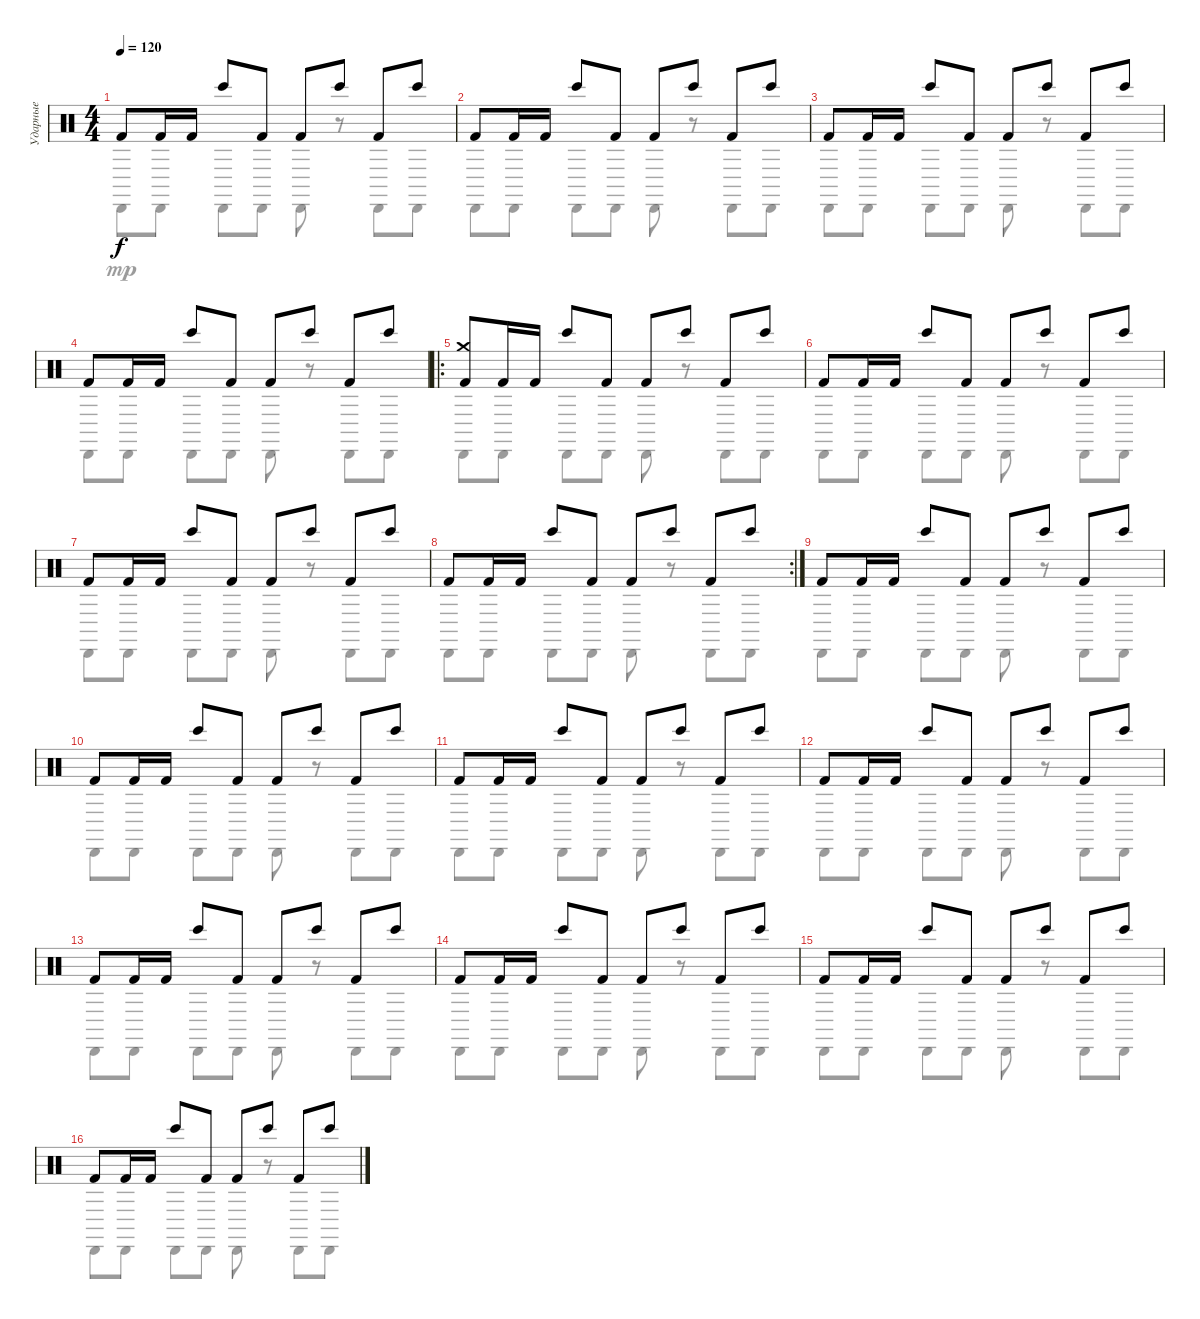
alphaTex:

\track ("Ударные" "Ударные") {instrument percussion}
\staff {score}
\articulation defaults
\voice
\ts (4 4)
\tempo 120
\clef neutral
\ks c "Kick (hit) 2".8{dy f} "Kick (hit) 2".16 "Kick (hit) 2".16 "Bongo High (hit)".8 "Kick (hit) 2".8 "Kick (hit) 2".8 "Bongo High (hit)".8 "Kick (hit) 2".8 "Bongo High (hit)".8
|
"Kick (hit) 2".8 "Kick (hit) 2".16 "Kick (hit) 2".16 "Bongo High (hit)".8 "Kick (hit) 2".8 "Kick (hit) 2".8 "Bongo High (hit)".8 "Kick (hit) 2".8 "Bongo High (hit)".8 |
"Kick (hit) 2".8 "Kick (hit) 2".16 "Kick (hit) 2".16 "Bongo High (hit)".8 "Kick (hit) 2".8 "Kick (hit) 2".8 "Bongo High (hit)".8 "Kick (hit) 2".8 "Bongo High (hit)".8 |
"Kick (hit) 2".8 "Kick (hit) 2".16 "Kick (hit) 2".16 "Bongo High (hit)".8 "Kick (hit) 2".8 "Kick (hit) 2".8 "Bongo High (hit)".8 "Kick (hit) 2".8 "Bongo High (hit)".8 |
\ro
("Kick (hit) 2" "Crash medium (hit)").8 "Kick (hit) 2".16 "Kick (hit) 2".16 "Bongo High (hit)".8 "Kick (hit) 2".8 "Kick (hit) 2".8 "Bongo High (hit)".8 "Kick (hit) 2".8 "Bongo High (hit)".8 |
"Kick (hit) 2".8 "Kick (hit) 2".16 "Kick (hit) 2".16 "Bongo High (hit)".8 "Kick (hit) 2".8 "Kick (hit) 2".8 "Bongo High (hit)".8 "Kick (hit) 2".8 "Bongo High (hit)".8 |
"Kick (hit) 2".8 "Kick (hit) 2".16 "Kick (hit) 2".16 "Bongo High (hit)".8 "Kick (hit) 2".8 "Kick (hit) 2".8 "Bongo High (hit)".8 "Kick (hit) 2".8 "Bongo High (hit)".8 |
\rc 2 "Kick (hit) 2".8 "Kick (hit) 2".16 "Kick (hit) 2".16 "Bongo High (hit)".8 "Kick (hit) 2".8 "Kick (hit) 2".8 "Bongo High (hit)".8 "Kick (hit) 2".8 "Bongo High (hit)".8
|
"Kick (hit) 2".8 "Kick (hit) 2".16 "Kick (hit) 2".16 "Bongo High (hit)".8 "Kick (hit) 2".8 "Kick (hit) 2".8 "Bongo High (hit)".8 "Kick (hit) 2".8 "Bongo High (hit)".8 |
"Kick (hit) 2".8 "Kick (hit) 2".16 "Kick (hit) 2".16 "Bongo High (hit)".8 "Kick (hit) 2".8 "Kick (hit) 2".8 "Bongo High (hit)".8 "Kick (hit) 2".8 "Bongo High (hit)".8 |
"Kick (hit) 2".8 "Kick (hit) 2".16 "Kick (hit) 2".16 "Bongo High (hit)".8 "Kick (hit) 2".8 "Kick (hit) 2".8 "Bongo High (hit)".8 "Kick (hit) 2".8 "Bongo High (hit)".8 |
"Kick (hit) 2".8 "Kick (hit) 2".16 "Kick (hit) 2".16 "Bongo High (hit)".8 "Kick (hit) 2".8 "Kick (hit) 2".8 "Bongo High (hit)".8 "Kick (hit) 2".8 "Bongo High (hit)".8 |
"Kick (hit) 2".8 "Kick (hit) 2".16 "Kick (hit) 2".16 "Bongo High (hit)".8 "Kick (hit) 2".8 "Kick (hit) 2".8 "Bongo High (hit)".8 "Kick (hit) 2".8 "Bongo High (hit)".8 |
"Kick (hit) 2".8 "Kick (hit) 2".16 "Kick (hit) 2".16 "Bongo High (hit)".8 "Kick (hit) 2".8 "Kick (hit) 2".8 "Bongo High (hit)".8 "Kick (hit) 2".8 "Bongo High (hit)".8 |
"Kick (hit) 2".8 "Kick (hit) 2".16 "Kick (hit) 2".16 "Bongo High (hit)".8 "Kick (hit) 2".8 "Kick (hit) 2".8 "Bongo High (hit)".8 "Kick (hit) 2".8 "Bongo High (hit)".8 |
"Kick (hit) 2".8 "Kick (hit) 2".16 "Kick (hit) 2".16 "Bongo High (hit)".8 "Kick (hit) 2".8 "Kick (hit) 2".8 "Bongo High (hit)".8 "Kick (hit) 2".8 "Bongo High (hit)".8
\voice
\clef neutral
\ottava regular
\simile none
\ks c "Cabasa (hit)".8{dy mp} "Cabasa (hit)".8 "Cabasa (hit)".8 "Cabasa (hit)".8 "Cabasa (hit)".8
r.8 "Cabasa (hit)".8 "Cabasa (hit)".8 |
"Cabasa (hit)".8 "Cabasa (hit)".8 "Cabasa (hit)".8 "Cabasa (hit)".8 "Cabasa (hit)".8 r.8 "Cabasa (hit)".8 "Cabasa (hit)".8 |
"Cabasa (hit)".8 "Cabasa (hit)".8 "Cabasa (hit)".8 "Cabasa (hit)".8 "Cabasa (hit)".8 r.8 "Cabasa (hit)".8 "Cabasa (hit)".8 |
"Cabasa (hit)".8 "Cabasa (hit)".8 "Cabasa (hit)".8 "Cabasa (hit)".8 "Cabasa (hit)".8 r.8 "Cabasa (hit)".8 "Cabasa (hit)".8 |
"Cabasa (hit)".8 "Cabasa (hit)".8 "Cabasa (hit)".8 "Cabasa (hit)".8 "Cabasa (hit)".8 r.8 "Cabasa (hit)".8 "Cabasa (hit)".8 |
"Cabasa (hit)".8 "Cabasa (hit)".8 "Cabasa (hit)".8 "Cabasa (hit)".8 "Cabasa (hit)".8 r.8 "Cabasa (hit)".8 "Cabasa (hit)".8 |
"Cabasa (hit)".8 "Cabasa (hit)".8 "Cabasa (hit)".8 "Cabasa (hit)".8 "Cabasa (hit)".8 r.8 "Cabasa (hit)".8 "Cabasa (hit)".8 |
"Cabasa (hit)".8 "Cabasa (hit)".8 "Cabasa (hit)".8 "Cabasa (hit)".8 "Cabasa (hit)".8 r.8 "Cabasa (hit)".8 "Cabasa (hit)".8 |
"Cabasa (hit)".8 "Cabasa (hit)".8 "Cabasa (hit)".8 "Cabasa (hit)".8 "Cabasa (hit)".8 r.8 "Cabasa (hit)".8 "Cabasa (hit)".8 |
"Cabasa (hit)".8 "Cabasa (hit)".8 "Cabasa (hit)".8 "Cabasa (hit)".8 "Cabasa (hit)".8 r.8 "Cabasa (hit)".8 "Cabasa (hit)".8 |
"Cabasa (hit)".8 "Cabasa (hit)".8 "Cabasa (hit)".8 "Cabasa (hit)".8 "Cabasa (hit)".8 r.8 "Cabasa (hit)".8 "Cabasa (hit)".8 |
"Cabasa (hit)".8 "Cabasa (hit)".8 "Cabasa (hit)".8 "Cabasa (hit)".8 "Cabasa (hit)".8 r.8 "Cabasa (hit)".8 "Cabasa (hit)".8 |
"Cabasa (hit)".8 "Cabasa (hit)".8 "Cabasa (hit)".8 "Cabasa (hit)".8 "Cabasa (hit)".8 r.8 "Cabasa (hit)".8 "Cabasa (hit)".8 |
"Cabasa (hit)".8 "Cabasa (hit)".8 "Cabasa (hit)".8 "Cabasa (hit)".8 "Cabasa (hit)".8 r.8 "Cabasa (hit)".8 "Cabasa (hit)".8 |
"Cabasa (hit)".8 "Cabasa (hit)".8 "Cabasa (hit)".8 "Cabasa (hit)".8 "Cabasa (hit)".8 r.8 "Cabasa (hit)".8 "Cabasa (hit)".8 |
"Cabasa (hit)".8 "Cabasa (hit)".8 "Cabasa (hit)".8 "Cabasa (hit)".8 "Cabasa (hit)".8 r.8 "Cabasa (hit)".8 "Cabasa (hit)".8
